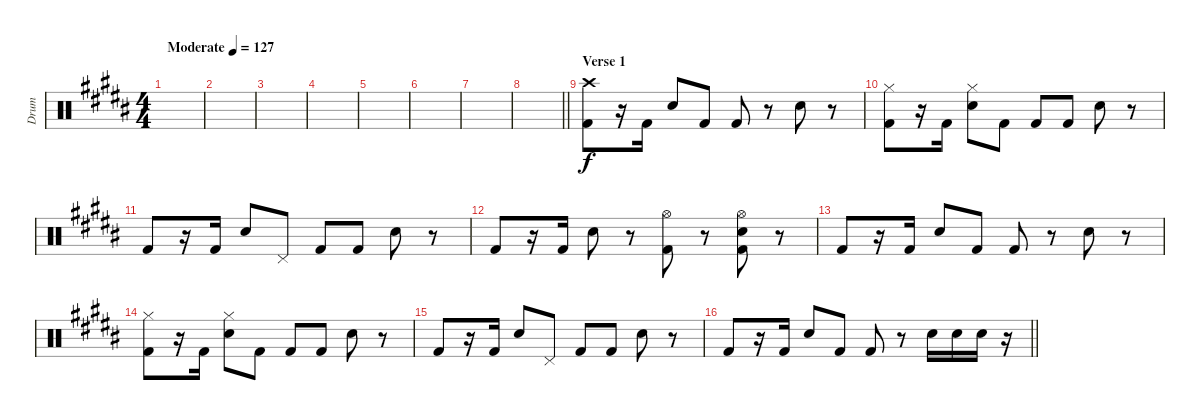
\track ("Drum" "Drum") {instrument percussion}
\staff {score}
\articulation defaults
\ts (4 4)
\tempo (127 "Moderate")
\clef neutral
\ks g#minor
|
|
|
|
|
|
|
\barLineRight lightlight
|
\section ("" "Verse 1")
("Crash high (hit)" "Kick (hit) 2").8 r.16 "Kick (hit) 2".16 "Snare (hit) 2".8 "Kick (hit) 2".8 "Kick (hit) 2".8 r.8 "Snare (hit) 2".8 r.8 |
("Hi-Hat (closed)" "Kick (hit) 2").8 r.16 "Kick (hit) 2".16 ("Hi-Hat (closed)" "Snare (hit) 2").8 "Kick (hit) 2".8 "Kick (hit) 2".8 "Kick (hit) 2".8 "Snare (hit) 2".8 r.8 |
"Kick (hit) 2".8 r.16 "Kick (hit) 2".16 "Snare (hit) 2".8 "Pedal Hi-Hat (hit)".8 "Kick (hit) 2".8 "Kick (hit) 2".8 "Snare (hit) 2".8 r.8 |
"Kick (hit) 2".8 r.16 "Kick (hit) 2".16 "Snare (hit) 2".8 r.8 ("Hi-Hat (open)" "Kick (hit) 2").8 r.8 ("Hi-Hat (open)" "Snare (hit) 2" "Kick (hit) 2").8 r.8 |
"Kick (hit) 2".8 r.16 "Kick (hit) 2".16 "Snare (hit) 2".8 "Kick (hit) 2".8 "Kick (hit) 2".8 r.8 "Snare (hit) 2".8 r.8 |
("Hi-Hat (closed)" "Kick (hit) 2").8 r.16 "Kick (hit) 2".16 ("Hi-Hat (closed)" "Snare (hit) 2").8 "Kick (hit) 2".8 "Kick (hit) 2".8 "Kick (hit) 2".8 "Snare (hit) 2".8 r.8 |
"Kick (hit) 2".8 r.16 "Kick (hit) 2".16 "Snare (hit) 2".8 "Pedal Hi-Hat (hit)".8 "Kick (hit) 2".8 "Kick (hit) 2".8 "Snare (hit) 2".8 r.8 |
\barLineRight lightlight "Kick (hit) 2".8
r.16 "Kick (hit) 2".16 "Snare (hit) 2".8 "Kick (hit) 2".8 "Kick (hit) 2".8 r.8 "Snare (hit) 2".16 "Snare (hit) 2".16 "Snare (hit) 2".16 r.16
